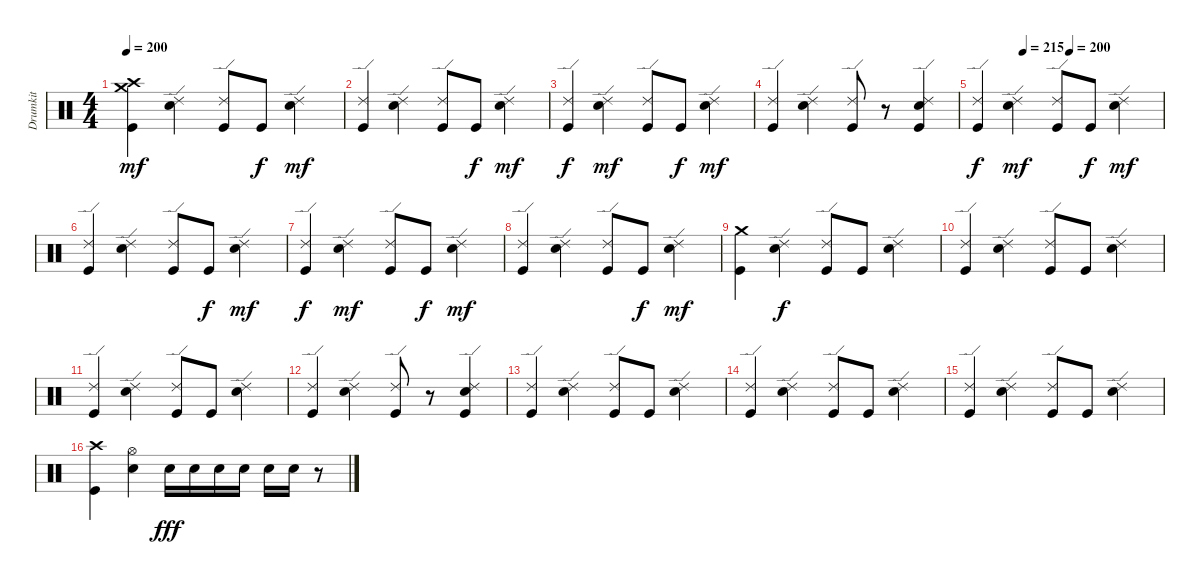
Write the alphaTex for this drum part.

\track ("Drumkit" "Drumkit") {instrument percussion}
\staff {score}
\articulation defaults
\ts (4 4)
\tempo 200
\clef neutral
\ks c
("Crash high (hit)" "Crash medium (hit)" "Kick (hit)").4{dy mf} ("Ride (edge) 2" "Snare (hit) 2").4 ("Ride (edge) 2" "Kick (hit)").8 "Kick (hit)".8{dy f} ("Ride (edge) 2" "Snare (hit) 2").4{dy mf} |
("Ride (edge) 2" "Kick (hit)").4 ("Ride (edge) 2" "Snare (hit) 2").4 ("Ride (edge) 2" "Kick (hit)").8 "Kick (hit)".8{dy f} ("Ride (edge) 2" "Snare (hit) 2").4{dy mf} |
("Ride (edge) 2" "Kick (hit)").4{dy f} ("Ride (edge) 2" "Snare (hit) 2").4{dy mf} ("Ride (edge) 2" "Kick (hit)").8 "Kick (hit)".8{dy f} ("Ride (edge) 2" "Snare (hit) 2").4{dy mf} |
("Ride (edge) 2" "Kick (hit)").4 ("Ride (edge) 2" "Snare (hit) 2").4 ("Ride (edge) 2" "Kick (hit)").8 r.8 ("Ride (edge) 2" "Snare (hit) 2" "Kick (hit)").4 |
\tempo (215 0.25)
\tempo (200 0.5)
("Ride (edge) 2" "Kick (hit)").4{dy f} ("Ride (edge) 2" "Snare (hit) 2").4{dy mf} ("Ride (edge) 2" "Kick (hit)").8 "Kick (hit)".8{dy f} ("Ride (edge) 2" "Snare (hit) 2").4{dy mf} |
("Ride (edge) 2" "Kick (hit)").4 ("Ride (edge) 2" "Snare (hit) 2").4 ("Ride (edge) 2" "Kick (hit)").8 "Kick (hit)".8{dy f} ("Ride (edge) 2" "Snare (hit) 2").4{dy mf} |
("Ride (edge) 2" "Kick (hit)").4{dy f} ("Ride (edge) 2" "Snare (hit) 2").4{dy mf} ("Ride (edge) 2" "Kick (hit)").8 "Kick (hit)".8{dy f} ("Ride (edge) 2" "Snare (hit) 2").4{dy mf} |
("Ride (edge) 2" "Kick (hit)").4 ("Ride (edge) 2" "Snare (hit) 2").4 ("Ride (edge) 2" "Kick (hit)").8 "Kick (hit)".8{dy f} ("Ride (edge) 2" "Snare (hit) 2").4{dy mf} |
("Crash medium (hit)" "Kick (hit)").4 ("Ride (edge) 2" "Snare (hit) 2").4{dy f} ("Ride (edge) 2" "Kick (hit)").8 "Kick (hit)".8 ("Ride (edge) 2" "Snare (hit) 2").4 |
("Ride (edge) 2" "Kick (hit)").4 ("Ride (edge) 2" "Snare (hit) 2").4 ("Ride (edge) 2" "Kick (hit)").8 "Kick (hit)".8 ("Ride (edge) 2" "Snare (hit) 2").4 |
("Ride (edge) 2" "Kick (hit)").4 ("Ride (edge) 2" "Snare (hit) 2").4 ("Ride (edge) 2" "Kick (hit)").8 "Kick (hit)".8 ("Ride (edge) 2" "Snare (hit) 2").4 |
("Ride (edge) 2" "Kick (hit)").4 ("Ride (edge) 2" "Snare (hit) 2").4 ("Ride (edge) 2" "Kick (hit)").8 r.8 ("Ride (edge) 2" "Snare (hit) 2" "Kick (hit)").4 |
("Ride (edge) 2" "Kick (hit)").4 ("Ride (edge) 2" "Snare (hit) 2").4 ("Ride (edge) 2" "Kick (hit)").8 "Kick (hit)".8 ("Ride (edge) 2" "Snare (hit) 2").4 |
("Ride (edge) 2" "Kick (hit)").4 ("Ride (edge) 2" "Snare (hit) 2").4 ("Ride (edge) 2" "Kick (hit)").8 "Kick (hit)".8 ("Ride (edge) 2" "Snare (hit) 2").4 |
("Ride (edge) 2" "Kick (hit)").4 ("Ride (edge) 2" "Snare (hit) 2").4 ("Ride (edge) 2" "Kick (hit)").8 "Kick (hit)".8 ("Ride (edge) 2" "Snare (hit) 2").4 |
("Crash high (hit)" "Kick (hit)").4 ("Hi-Hat (open)" "Snare (hit) 2").4 "Snare (hit) 2".16{dy fff} "Snare (hit) 2".16 "Snare (hit) 2".16 "Snare (hit) 2".16 "Snare (hit) 2".16 "Snare (hit) 2".16 r.8
